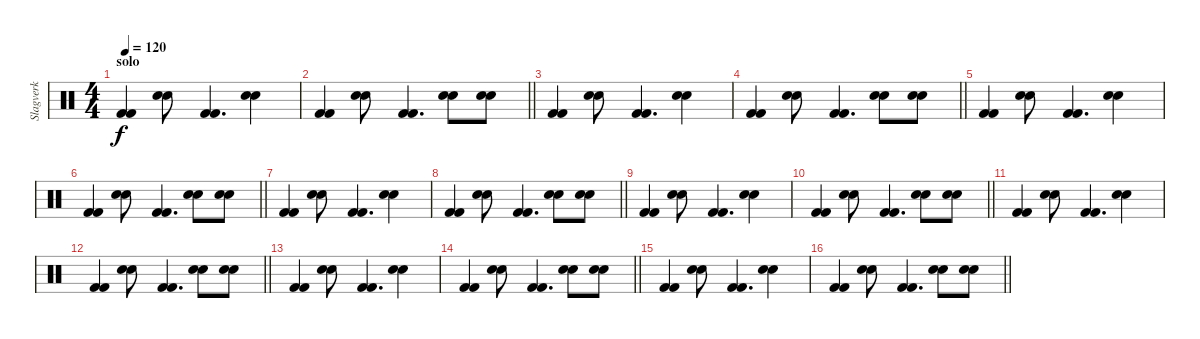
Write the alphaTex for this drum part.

\track ("Slagverk" "Slagverk") {instrument percussion}
\staff {score}
\articulation defaults
\ts (4 4)
\section ("" "solo")
\tempo 120
\clef neutral
\ks c
("Kick (hit) 2" "Kick (hit) 2").4{dy f} ("Snare (hit) 2" "Snare (hit) 2").8 ("Kick (hit) 2" "Kick (hit) 2").4{d} ("Snare (hit) 2" "Snare (hit) 2").4 |
\barLineRight lightlight
("Kick (hit) 2" "Kick (hit) 2").4 ("Snare (hit) 2" "Snare (hit) 2").8 ("Kick (hit) 2" "Kick (hit) 2").4{d} ("Snare (hit) 2" "Snare (hit) 2").8 ("Snare (hit) 2" "Snare (hit) 2").8 |
("Kick (hit) 2" "Kick (hit) 2").4 ("Snare (hit) 2" "Snare (hit) 2").8 ("Kick (hit) 2" "Kick (hit) 2").4{d} ("Snare (hit) 2" "Snare (hit) 2").4 |
\barLineRight lightlight
("Kick (hit) 2" "Kick (hit) 2").4 ("Snare (hit) 2" "Snare (hit) 2").8 ("Kick (hit) 2" "Kick (hit) 2").4{d} ("Snare (hit) 2" "Snare (hit) 2").8 ("Snare (hit) 2" "Snare (hit) 2").8 |
("Kick (hit) 2" "Kick (hit) 2").4 ("Snare (hit) 2" "Snare (hit) 2").8 ("Kick (hit) 2" "Kick (hit) 2").4{d} ("Snare (hit) 2" "Snare (hit) 2").4 |
\barLineRight lightlight
("Kick (hit) 2" "Kick (hit) 2").4 ("Snare (hit) 2" "Snare (hit) 2").8 ("Kick (hit) 2" "Kick (hit) 2").4{d} ("Snare (hit) 2" "Snare (hit) 2").8 ("Snare (hit) 2" "Snare (hit) 2").8 |
("Kick (hit) 2" "Kick (hit) 2").4 ("Snare (hit) 2" "Snare (hit) 2").8 ("Kick (hit) 2" "Kick (hit) 2").4{d} ("Snare (hit) 2" "Snare (hit) 2").4 |
\barLineRight lightlight
("Kick (hit) 2" "Kick (hit) 2").4 ("Snare (hit) 2" "Snare (hit) 2").8 ("Kick (hit) 2" "Kick (hit) 2").4{d} ("Snare (hit) 2" "Snare (hit) 2").8 ("Snare (hit) 2" "Snare (hit) 2").8 |
("Kick (hit) 2" "Kick (hit) 2").4 ("Snare (hit) 2" "Snare (hit) 2").8 ("Kick (hit) 2" "Kick (hit) 2").4{d} ("Snare (hit) 2" "Snare (hit) 2").4 |
\barLineRight lightlight
("Kick (hit) 2" "Kick (hit) 2").4 ("Snare (hit) 2" "Snare (hit) 2").8 ("Kick (hit) 2" "Kick (hit) 2").4{d} ("Snare (hit) 2" "Snare (hit) 2").8 ("Snare (hit) 2" "Snare (hit) 2").8 |
("Kick (hit) 2" "Kick (hit) 2").4 ("Snare (hit) 2" "Snare (hit) 2").8 ("Kick (hit) 2" "Kick (hit) 2").4{d} ("Snare (hit) 2" "Snare (hit) 2").4 |
\barLineRight lightlight
("Kick (hit) 2" "Kick (hit) 2").4 ("Snare (hit) 2" "Snare (hit) 2").8 ("Kick (hit) 2" "Kick (hit) 2").4{d} ("Snare (hit) 2" "Snare (hit) 2").8 ("Snare (hit) 2" "Snare (hit) 2").8 |
("Kick (hit) 2" "Kick (hit) 2").4 ("Snare (hit) 2" "Snare (hit) 2").8 ("Kick (hit) 2" "Kick (hit) 2").4{d} ("Snare (hit) 2" "Snare (hit) 2").4 |
\barLineRight lightlight
("Kick (hit) 2" "Kick (hit) 2").4 ("Snare (hit) 2" "Snare (hit) 2").8 ("Kick (hit) 2" "Kick (hit) 2").4{d} ("Snare (hit) 2" "Snare (hit) 2").8 ("Snare (hit) 2" "Snare (hit) 2").8 |
("Kick (hit) 2" "Kick (hit) 2").4 ("Snare (hit) 2" "Snare (hit) 2").8 ("Kick (hit) 2" "Kick (hit) 2").4{d} ("Snare (hit) 2" "Snare (hit) 2").4 |
\barLineRight lightlight
("Kick (hit) 2" "Kick (hit) 2").4 ("Snare (hit) 2" "Snare (hit) 2").8 ("Kick (hit) 2" "Kick (hit) 2").4{d} ("Snare (hit) 2" "Snare (hit) 2").8 ("Snare (hit) 2" "Snare (hit) 2").8
